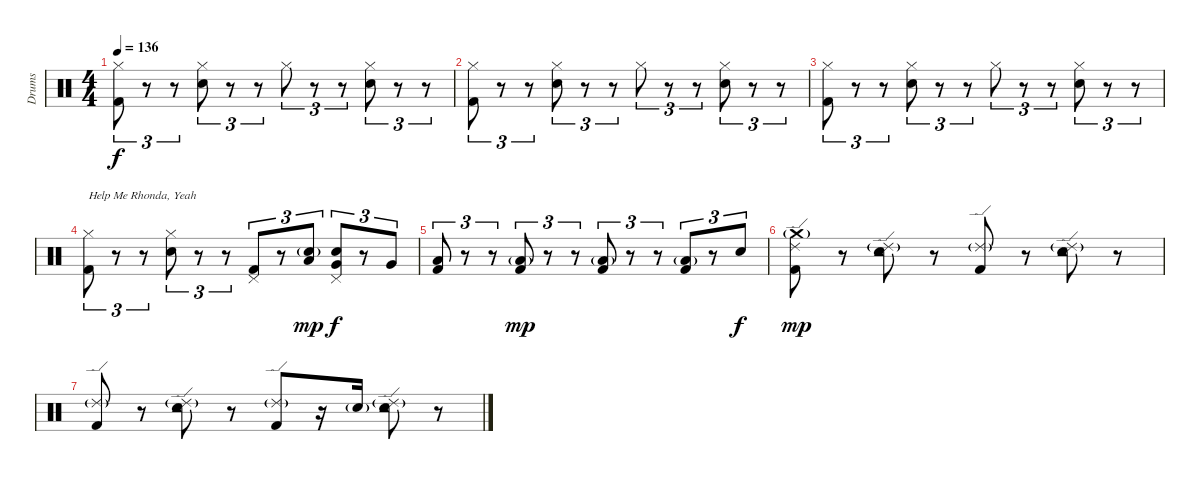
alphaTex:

\track ("Drums" "Drums") {instrument percussion}
\staff {score}
\articulation defaults
\ts (4 4)
\tempo 136
\clef neutral
\ks c
("Hi-Hat (closed)" "Kick (hit) 2").8{tu (3 2) dy f} r.8{tu (3 2)} r.8{tu (3 2)} ("Hi-Hat (closed)" "Snare (hit) 2").8{tu (3 2)} r.8{tu (3 2)} r.8{tu (3 2)} "Hi-Hat (closed)".8{tu (3 2)} r.8{tu (3 2)} r.8{tu (3 2)} ("Hi-Hat (closed)" "Snare (hit) 2").8{tu (3 2)} r.8{tu (3 2)} r.8{tu (3 2)} |
("Hi-Hat (closed)" "Kick (hit) 2").8{tu (3 2)} r.8{tu (3 2)} r.8{tu (3 2)} ("Hi-Hat (closed)" "Snare (hit) 2").8{tu (3 2)} r.8{tu (3 2)} r.8{tu (3 2)} "Hi-Hat (closed)".8{tu (3 2)} r.8{tu (3 2)} r.8{tu (3 2)} ("Hi-Hat (closed)" "Snare (hit) 2").8{tu (3 2)} r.8{tu (3 2)} r.8{tu (3 2)} |
("Hi-Hat (closed)" "Kick (hit) 2").8{tu (3 2)} r.8{tu (3 2)} r.8{tu (3 2)} ("Hi-Hat (closed)" "Snare (hit) 2").8{tu (3 2)} r.8{tu (3 2)} r.8{tu (3 2)} "Hi-Hat (closed)".8{tu (3 2)} r.8{tu (3 2)} r.8{tu (3 2)} ("Hi-Hat (closed)" "Snare (hit) 2").8{tu (3 2)} r.8{tu (3 2)} r.8{tu (3 2)} |
("Hi-Hat (closed)" "Kick (hit) 2").8{tu (3 2) txt "Help Me Rhonda, Yeah"} r.8{tu (3 2)} r.8{tu (3 2)} ("Hi-Hat (closed)" "Snare (hit) 2").8{tu (3 2)} r.8{tu (3 2)} r.8{tu (3 2)} ("Pedal Hi-Hat (hit)" "Kick (hit) 2").8{tu (3 2)} r.8{tu (3 2)} ("Low Tom (hit)" "Snare (hit) 2"{g}).8{tu (3 2) dy mp} ("Very Low Tom (hit)" "Pedal Hi-Hat (hit)" "Snare (hit) 2").8{tu (3 2) dy f} r.8{tu (3 2)} "Very Low Tom (hit)".8{tu (3 2)} |
("Low Floor Tom (hit)" "Kick (hit) 2").8{tu (3 2)} r.8{tu (3 2)} r.8{tu (3 2)} ("Low Floor Tom (hit)"{g} "Kick (hit) 2").8{tu (3 2) dy mp} r.8{tu (3 2)} r.8{tu (3 2)} ("Low Floor Tom (hit)"{g} "Kick (hit) 2").8{tu (3 2)} r.8{tu (3 2)} r.8{tu (3 2)} ("Low Floor Tom (hit)"{g} "Kick (hit) 2").8{tu (3 2)} r.8{tu (3 2)} "Snare (hit) 2".8{tu (3 2) dy f} |
("Ride (edge) 2" "Crash medium (hit)"{g} "Kick (hit) 2").8{dy mp} r.8 ("Ride (edge) 2"{g} "Tambourine (hit)" "Snare (hit) 2").8 r.8 ("Ride (edge) 2"{g} "Kick (hit) 2").8 r.8 ("Ride (edge) 2"{g} "Tambourine (hit)" "Snare (hit) 2").8 r.8 |
("Ride (edge) 2"{g} "Kick (hit) 2").8 r.8 ("Ride (edge) 2"{g} "Tambourine (hit)" "Snare (hit) 2").8 r.8 ("Ride (edge) 2"{g} "Kick (hit) 2").8 r.16 "Snare (hit) 2"{g}.16 ("Ride (edge) 2"{g} "Tambourine (hit)" "Snare (hit) 2").8 r.8
